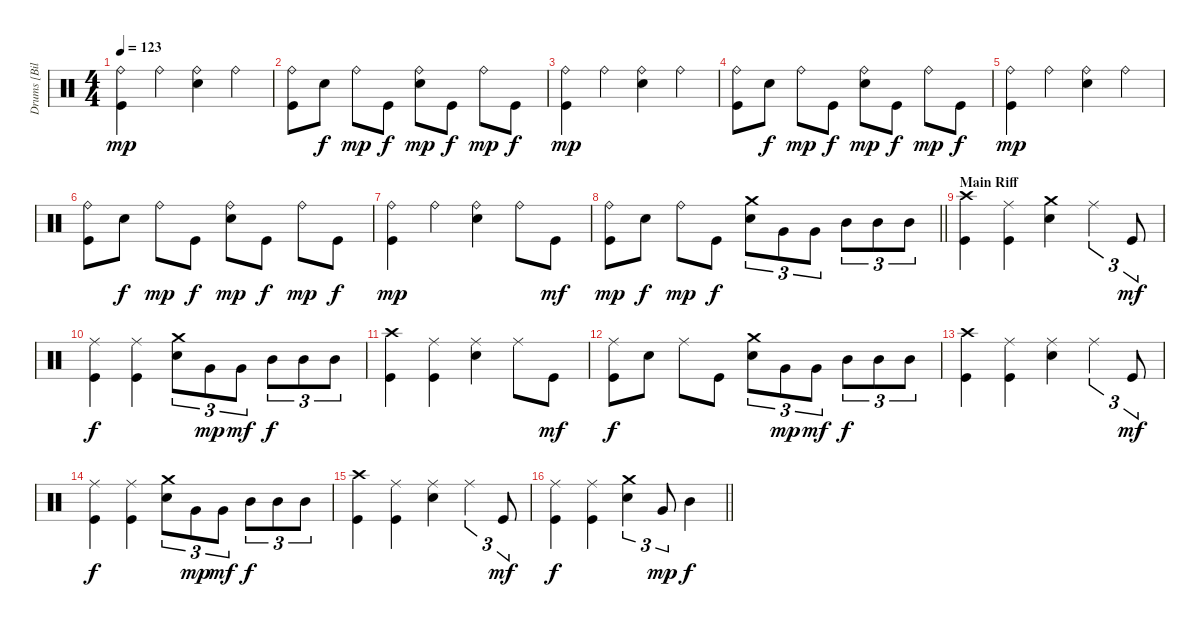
\track ("Drums [Bill Ward]" "Drums [Bil") {instrument percussion}
\staff {score}
\articulation defaults
\ts (4 4)
\tempo 123
\clef neutral
\ks c
("Ride (bell)" "Kick (hit)").4{dy mp} "Ride (bell)".4 ("Ride (bell)" "Electric Snare (hit)").4 "Ride (bell)".4 |
("Ride (bell)" "Kick (hit)").8 "Electric Snare (hit)".8{dy f} "Ride (bell)".8{dy mp} "Kick (hit)".8{dy f} ("Ride (bell)" "Electric Snare (hit)").8{dy mp} "Kick (hit)".8{dy f} "Ride (bell)".8{dy mp} "Kick (hit)".8{dy f} |
("Ride (bell)" "Kick (hit)").4{dy mp} "Ride (bell)".4 ("Ride (bell)" "Electric Snare (hit)").4 "Ride (bell)".4 |
("Ride (bell)" "Kick (hit)").8 "Electric Snare (hit)".8{dy f} "Ride (bell)".8{dy mp} "Kick (hit)".8{dy f} ("Ride (bell)" "Electric Snare (hit)").8{dy mp} "Kick (hit)".8{dy f} "Ride (bell)".8{dy mp} "Kick (hit)".8{dy f} |
("Ride (bell)" "Kick (hit)").4{dy mp} "Ride (bell)".4 ("Ride (bell)" "Electric Snare (hit)").4 "Ride (bell)".4 |
("Ride (bell)" "Kick (hit)").8 "Electric Snare (hit)".8{dy f} "Ride (bell)".8{dy mp} "Kick (hit)".8{dy f} ("Ride (bell)" "Electric Snare (hit)").8{dy mp} "Kick (hit)".8{dy f} "Ride (bell)".8{dy mp} "Kick (hit)".8{dy f} |
("Ride (bell)" "Kick (hit)").4{dy mp} "Ride (bell)".4 ("Ride (bell)" "Electric Snare (hit)").4 "Ride (bell)".8 "Kick (hit)".8{dy mf} |
\barLineRight lightlight
("Ride (bell)" "Kick (hit)").8{dy mp} "Electric Snare (hit)".8{dy f} "Ride (bell)".8{dy mp} "Kick (hit)".8{dy f} ("Crash medium (hit)" "Electric Snare (hit)").8{tu (3 2)} "Very Low Tom (hit)".8{tu (3 2)} "Very Low Tom (hit)".8{tu (3 2)} "Mid Tom (hit)".8{tu (3 2)} "Mid Tom (hit)".8{tu (3 2)} "Mid Tom (hit)".8{tu (3 2)} |
\section ("" "Main Riff")
("Crash high (hit)" "Kick (hit)").4 ("Ride (middle)" "Kick (hit)").4 ("Crash medium (hit)" "Electric Snare (hit)").4 "Ride (middle)".4{tu (3 2)} "Kick (hit)".8{tu (3 2) dy mf} |
("Ride (middle)" "Kick (hit)").4{dy f} ("Ride (middle)" "Kick (hit)").4 ("Crash medium (hit)" "Electric Snare (hit)").8{tu (3 2)} "Very Low Tom (hit)".8{tu (3 2) dy mp} "Very Low Tom (hit)".8{tu (3 2) dy mf} "Mid Tom (hit)".8{tu (3 2) dy f} "Mid Tom (hit)".8{tu (3 2)} "Mid Tom (hit)".8{tu (3 2)} |
("Crash high (hit)" "Kick (hit)").4 ("Ride (middle)" "Kick (hit)").4 ("Ride (middle)" "Electric Snare (hit)").4 "Ride (middle)".8 "Kick (hit)".8{dy mf} |
("Ride (middle)" "Kick (hit)").8{dy f} "Electric Snare (hit)".8 "Ride (middle)".8 "Kick (hit)".8 ("Crash medium (hit)" "Electric Snare (hit)").8{tu (3 2)} "Very Low Tom (hit)".8{tu (3 2) dy mp} "Very Low Tom (hit)".8{tu (3 2) dy mf} "Mid Tom (hit)".8{tu (3 2) dy f} "Mid Tom (hit)".8{tu (3 2)} "Mid Tom (hit)".8{tu (3 2)} |
("Crash high (hit)" "Kick (hit)").4 ("Ride (middle)" "Kick (hit)").4 ("Ride (middle)" "Electric Snare (hit)").4 "Ride (middle)".4{tu (3 2)} "Kick (hit)".8{tu (3 2) dy mf} |
("Ride (middle)" "Kick (hit)").4{dy f} ("Ride (middle)" "Kick (hit)").4 ("Crash medium (hit)" "Electric Snare (hit)").8{tu (3 2)} "Very Low Tom (hit)".8{tu (3 2) dy mp} "Very Low Tom (hit)".8{tu (3 2) dy mf} "Mid Tom (hit)".8{tu (3 2) dy f} "Mid Tom (hit)".8{tu (3 2)} "Mid Tom (hit)".8{tu (3 2)} |
("Crash high (hit)" "Kick (hit)").4 ("Ride (middle)" "Kick (hit)").4 ("Ride (middle)" "Electric Snare (hit)").4 "Ride (middle)".4{tu (3 2)} "Kick (hit)".8{tu (3 2) dy mf} |
\barLineRight lightlight
("Ride (middle)" "Kick (hit)").4{dy f} ("Ride (middle)" "Kick (hit)").4 ("Crash medium (hit)" "Electric Snare (hit)").4{tu (3 2)} "Very Low Tom (hit)".8{tu (3 2) dy mp} "Mid Tom (hit)".4{dy f}
